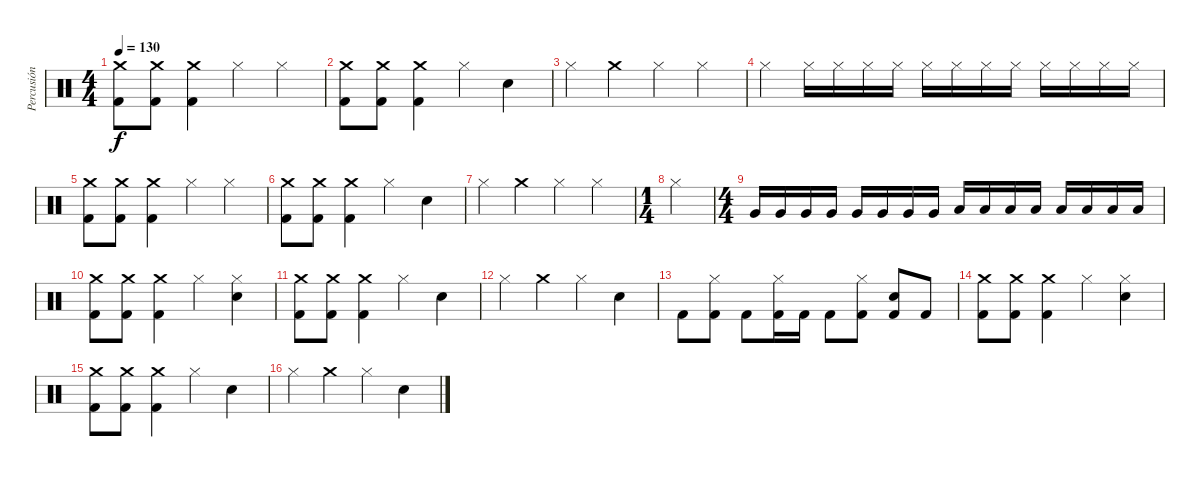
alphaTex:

\track ("Percusión" "Percusión") {instrument percussion}
\staff {score}
\articulation defaults
\ts (4 4)
\tempo 130
\clef neutral
\ks c
("Crash medium (hit)" "Kick (hit) 2").8{dy f} ("Crash medium (hit)" "Kick (hit) 2").8 ("Crash medium (hit)" "Kick (hit) 2").4 "Hi-Hat (closed)".4 "Hi-Hat (closed)".4 |
("Crash medium (hit)" "Kick (hit) 2").8 ("Crash medium (hit)" "Kick (hit) 2").8 ("Crash medium (hit)" "Kick (hit) 2").4 "Hi-Hat (closed)".4 "Snare (hit) 2".4 |
"Hi-Hat (closed)".4 "Crash medium (hit)".4 "Hi-Hat (closed)".4 "Hi-Hat (closed)".4 |
"Hi-Hat (closed)".4 "Hi-Hat (closed)".16 "Hi-Hat (closed)".16 "Hi-Hat (closed)".16 "Hi-Hat (closed)".16 "Hi-Hat (closed)".16 "Hi-Hat (closed)".16 "Hi-Hat (closed)".16 "Hi-Hat (closed)".16 "Hi-Hat (closed)".16 "Hi-Hat (closed)".16 "Hi-Hat (closed)".16 "Hi-Hat (closed)".16 |
("Crash medium (hit)" "Kick (hit) 2").8 ("Crash medium (hit)" "Kick (hit) 2").8 ("Crash medium (hit)" "Kick (hit) 2").4 "Hi-Hat (closed)".4 "Hi-Hat (closed)".4 |
("Crash medium (hit)" "Kick (hit) 2").8 ("Crash medium (hit)" "Kick (hit) 2").8 ("Crash medium (hit)" "Kick (hit) 2").4 "Hi-Hat (closed)".4 "Snare (hit) 2".4 |
"Hi-Hat (closed)".4 "Crash medium (hit)".4 "Hi-Hat (closed)".4 "Hi-Hat (closed)".4 |
\ts (1 4)
"Hi-Hat (closed)".4 |
\ts (4 4)
"Very Low Tom (hit)".16 "Very Low Tom (hit)".16 "Very Low Tom (hit)".16 "Very Low Tom (hit)".16 "Very Low Tom (hit)".16 "Very Low Tom (hit)".16 "Very Low Tom (hit)".16 "Very Low Tom (hit)".16 "Low Floor Tom (hit)".16 "Low Floor Tom (hit)".16 "Low Floor Tom (hit)".16 "Low Floor Tom (hit)".16 "Low Floor Tom (hit)".16 "Low Floor Tom (hit)".16 "Low Floor Tom (hit)".16 "Low Floor Tom (hit)".16 |
("Crash medium (hit)" "Kick (hit) 2").8 ("Crash medium (hit)" "Kick (hit) 2").8 ("Crash medium (hit)" "Kick (hit) 2").4 "Hi-Hat (closed)".4 ("Hi-Hat (closed)" "Snare (hit) 2").4 |
("Crash medium (hit)" "Kick (hit) 2").8 ("Crash medium (hit)" "Kick (hit) 2").8 ("Crash medium (hit)" "Kick (hit) 2").4 "Hi-Hat (closed)".4 "Snare (hit) 2".4 |
"Hi-Hat (closed)".4 "Crash medium (hit)".4 "Hi-Hat (closed)".4 "Snare (hit) 2".4 |
"Kick (hit) 2".8 ("Hi-Hat (closed)" "Kick (hit) 2").8 "Kick (hit) 2".8 ("Hi-Hat (closed)" "Kick (hit) 2").16 "Kick (hit) 2".16 "Kick (hit) 2".8 ("Hi-Hat (closed)" "Kick (hit) 2").8 ("Snare (hit) 2" "Kick (hit) 2").8 "Kick (hit) 2".8 |
("Crash medium (hit)" "Kick (hit) 2").8 ("Crash medium (hit)" "Kick (hit) 2").8 ("Crash medium (hit)" "Kick (hit) 2").4 "Hi-Hat (closed)".4 ("Hi-Hat (closed)" "Snare (hit) 2").4 |
("Crash medium (hit)" "Kick (hit) 2").8 ("Crash medium (hit)" "Kick (hit) 2").8 ("Crash medium (hit)" "Kick (hit) 2").4 "Hi-Hat (closed)".4 "Snare (hit) 2".4 |
"Hi-Hat (closed)".4 "Crash medium (hit)".4 "Hi-Hat (closed)".4 "Snare (hit) 2".4
